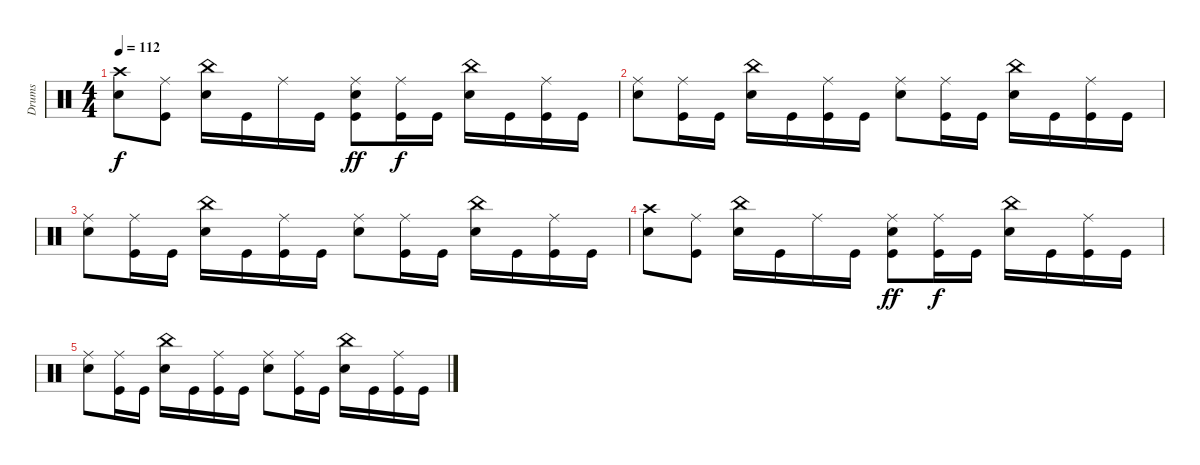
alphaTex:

\track ("Drums" "Drums") {instrument percussion}
\staff {score}
\articulation defaults
\ts (4 4)
\tempo 112
\clef neutral
\ks c
("Snare (hit) 2" "Crash high (hit)").8{dy f} ("Ride (middle)" "Kick (hit)").8 ("China (hit)" "Snare (hit) 2").16 "Kick (hit)".16 "Ride (middle)".16 "Kick (hit)".16 ("Ride (middle)" "Snare (hit) 2" "Kick (hit)").8{dy ff} ("Ride (middle)" "Kick (hit)").16{dy f} "Kick (hit)".16 ("China (hit)" "Snare (hit) 2").16 "Kick (hit)".16 ("Ride (middle)" "Kick (hit)").16 "Kick (hit)".16 |
("Ride (middle)" "Snare (hit) 2").8 ("Ride (middle)" "Kick (hit)").16 "Kick (hit)".16 ("China (hit)" "Snare (hit) 2").16 "Kick (hit)".16 ("Ride (middle)" "Kick (hit)").16 "Kick (hit)".16 ("Ride (middle)" "Snare (hit) 2").8 ("Ride (middle)" "Kick (hit)").16 "Kick (hit)".16 ("China (hit)" "Snare (hit) 2").16 "Kick (hit)".16 ("Ride (middle)" "Kick (hit)").16 "Kick (hit)".16 |
("Ride (middle)" "Snare (hit) 2").8 ("Ride (middle)" "Kick (hit)").16 "Kick (hit)".16 ("China (hit)" "Snare (hit) 2").16 "Kick (hit)".16 ("Ride (middle)" "Kick (hit)").16 "Kick (hit)".16 ("Ride (middle)" "Snare (hit) 2").8 ("Ride (middle)" "Kick (hit)").16 "Kick (hit)".16 ("China (hit)" "Snare (hit) 2").16 "Kick (hit)".16 ("Ride (middle)" "Kick (hit)").16 "Kick (hit)".16 |
("Snare (hit) 2" "Crash high (hit)").8 ("Ride (middle)" "Kick (hit)").8 ("China (hit)" "Snare (hit) 2").16 "Kick (hit)".16 "Ride (middle)".16 "Kick (hit)".16 ("Ride (middle)" "Snare (hit) 2" "Kick (hit)").8{dy ff} ("Ride (middle)" "Kick (hit)").16{dy f} "Kick (hit)".16 ("China (hit)" "Snare (hit) 2").16 "Kick (hit)".16 ("Ride (middle)" "Kick (hit)").16 "Kick (hit)".16 |
("Ride (middle)" "Snare (hit) 2").8 ("Ride (middle)" "Kick (hit)").16 "Kick (hit)".16 ("China (hit)" "Snare (hit) 2").16 "Kick (hit)".16 ("Ride (middle)" "Kick (hit)").16 "Kick (hit)".16 ("Ride (middle)" "Snare (hit) 2").8 ("Ride (middle)" "Kick (hit)").16 "Kick (hit)".16 ("China (hit)" "Snare (hit) 2").16 "Kick (hit)".16 ("Ride (middle)" "Kick (hit)").16 "Kick (hit)".16
